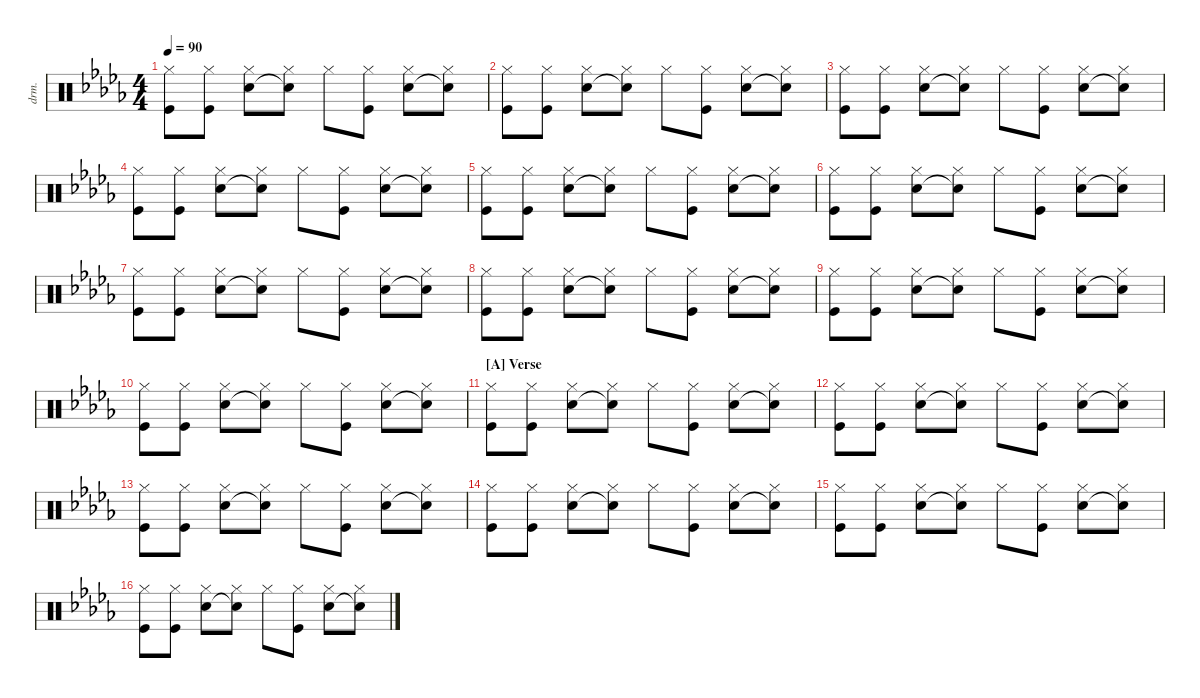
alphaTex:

\defaultSystemsLayout 4
\hideDynamics
\bracketExtendMode nobrackets
\otherSystemsTrackNameOrientation horizontal
\track ("Drumkit" "drm.") {instrument percussion}
\staff {score}
\articulation defaults
\ts (4 4)
\tempo 90
\clef neutral
\ks db
("Kick (hit)"{acc forcenatural} "Hi-Hat (closed)"{acc forcenatural}).8{dy pp beam Down} ("Kick (hit)"{acc forcenatural} "Hi-Hat (closed)"{acc forcenatural}).8{beam Down} ("Snare (hit) 2"{acc forcenatural} "Hi-Hat (closed)"{acc forcenatural}).8{beam Down} ("Snare (hit) 2"{t acc forcenatural} "Hi-Hat (closed)"{acc forcenatural}).8{beam Down} "Hi-Hat (closed)"{acc forcenatural}.8{beam Down} ("Kick (hit)"{acc forcenatural} "Hi-Hat (closed)"{acc forcenatural}).8{beam Down} ("Snare (hit) 2"{acc forcenatural} "Hi-Hat (closed)"{acc forcenatural}).8{beam Down} ("Snare (hit) 2"{t acc forcenatural} "Hi-Hat (closed)"{acc forcenatural}).8{beam Down} |
("Kick (hit)"{acc forcenatural} "Hi-Hat (closed)"{acc forcenatural}).8{beam Down} ("Kick (hit)"{acc forcenatural} "Hi-Hat (closed)"{acc forcenatural}).8{beam Down} ("Snare (hit) 2"{acc forcenatural} "Hi-Hat (closed)"{acc forcenatural}).8{beam Down} ("Snare (hit) 2"{t acc forcenatural} "Hi-Hat (closed)"{acc forcenatural}).8{beam Down} "Hi-Hat (closed)"{acc forcenatural}.8{beam Down} ("Kick (hit)"{acc forcenatural} "Hi-Hat (closed)"{acc forcenatural}).8{beam Down} ("Snare (hit) 2"{acc forcenatural} "Hi-Hat (closed)"{acc forcenatural}).8{beam Down} ("Snare (hit) 2"{t acc forcenatural} "Hi-Hat (closed)"{acc forcenatural}).8{beam Down} |
("Kick (hit)"{acc forcenatural} "Hi-Hat (closed)"{acc forcenatural}).8{beam Down} ("Kick (hit)"{acc forcenatural} "Hi-Hat (closed)"{acc forcenatural}).8{beam Down} ("Snare (hit) 2"{acc forcenatural} "Hi-Hat (closed)"{acc forcenatural}).8{beam Down} ("Snare (hit) 2"{t acc forcenatural} "Hi-Hat (closed)"{acc forcenatural}).8{beam Down} "Hi-Hat (closed)"{acc forcenatural}.8{beam Down} ("Kick (hit)"{acc forcenatural} "Hi-Hat (closed)"{acc forcenatural}).8{beam Down} ("Snare (hit) 2"{acc forcenatural} "Hi-Hat (closed)"{acc forcenatural}).8{beam Down} ("Snare (hit) 2"{t acc forcenatural} "Hi-Hat (closed)"{acc forcenatural}).8{beam Down} |
("Kick (hit)"{acc forcenatural} "Hi-Hat (closed)"{acc forcenatural}).8{beam Down} ("Kick (hit)"{acc forcenatural} "Hi-Hat (closed)"{acc forcenatural}).8{beam Down} ("Snare (hit) 2"{acc forcenatural} "Hi-Hat (closed)"{acc forcenatural}).8{beam Down} ("Snare (hit) 2"{t acc forcenatural} "Hi-Hat (closed)"{acc forcenatural}).8{beam Down} "Hi-Hat (closed)"{acc forcenatural}.8{beam Down} ("Kick (hit)"{acc forcenatural} "Hi-Hat (closed)"{acc forcenatural}).8{beam Down} ("Snare (hit) 2"{acc forcenatural} "Hi-Hat (closed)"{acc forcenatural}).8{beam Down} ("Snare (hit) 2"{t acc forcenatural} "Hi-Hat (closed)"{acc forcenatural}).8{beam Down} |
("Kick (hit)"{acc forcenatural} "Hi-Hat (closed)"{acc forcenatural}).8{beam Down} ("Kick (hit)"{acc forcenatural} "Hi-Hat (closed)"{acc forcenatural}).8{beam Down} ("Snare (hit) 2"{acc forcenatural} "Hi-Hat (closed)"{acc forcenatural}).8{beam Down} ("Snare (hit) 2"{t acc forcenatural} "Hi-Hat (closed)"{acc forcenatural}).8{beam Down} "Hi-Hat (closed)"{acc forcenatural}.8{beam Down} ("Kick (hit)"{acc forcenatural} "Hi-Hat (closed)"{acc forcenatural}).8{beam Down} ("Snare (hit) 2"{acc forcenatural} "Hi-Hat (closed)"{acc forcenatural}).8{beam Down} ("Snare (hit) 2"{t acc forcenatural} "Hi-Hat (closed)"{acc forcenatural}).8{beam Down} |
("Kick (hit)"{acc forcenatural} "Hi-Hat (closed)"{acc forcenatural}).8{beam Down} ("Kick (hit)"{acc forcenatural} "Hi-Hat (closed)"{acc forcenatural}).8{beam Down} ("Snare (hit) 2"{acc forcenatural} "Hi-Hat (closed)"{acc forcenatural}).8{beam Down} ("Snare (hit) 2"{t acc forcenatural} "Hi-Hat (closed)"{acc forcenatural}).8{beam Down} "Hi-Hat (closed)"{acc forcenatural}.8{beam Down} ("Kick (hit)"{acc forcenatural} "Hi-Hat (closed)"{acc forcenatural}).8{beam Down} ("Snare (hit) 2"{acc forcenatural} "Hi-Hat (closed)"{acc forcenatural}).8{beam Down} ("Snare (hit) 2"{t acc forcenatural} "Hi-Hat (closed)"{acc forcenatural}).8{beam Down} |
("Kick (hit)"{acc forcenatural} "Hi-Hat (closed)"{acc forcenatural}).8{beam Down} ("Kick (hit)"{acc forcenatural} "Hi-Hat (closed)"{acc forcenatural}).8{beam Down} ("Snare (hit) 2"{acc forcenatural} "Hi-Hat (closed)"{acc forcenatural}).8{beam Down} ("Snare (hit) 2"{t acc forcenatural} "Hi-Hat (closed)"{acc forcenatural}).8{beam Down} "Hi-Hat (closed)"{acc forcenatural}.8{beam Down} ("Kick (hit)"{acc forcenatural} "Hi-Hat (closed)"{acc forcenatural}).8{beam Down} ("Snare (hit) 2"{acc forcenatural} "Hi-Hat (closed)"{acc forcenatural}).8{beam Down} ("Snare (hit) 2"{t acc forcenatural} "Hi-Hat (closed)"{acc forcenatural}).8{beam Down} |
("Kick (hit)"{acc forcenatural} "Hi-Hat (closed)"{acc forcenatural}).8{beam Down} ("Kick (hit)"{acc forcenatural} "Hi-Hat (closed)"{acc forcenatural}).8{beam Down} ("Snare (hit) 2"{acc forcenatural} "Hi-Hat (closed)"{acc forcenatural}).8{beam Down} ("Snare (hit) 2"{t acc forcenatural} "Hi-Hat (closed)"{acc forcenatural}).8{beam Down} "Hi-Hat (closed)"{acc forcenatural}.8{beam Down} ("Kick (hit)"{acc forcenatural} "Hi-Hat (closed)"{acc forcenatural}).8{beam Down} ("Snare (hit) 2"{acc forcenatural} "Hi-Hat (closed)"{acc forcenatural}).8{beam Down} ("Snare (hit) 2"{t acc forcenatural} "Hi-Hat (closed)"{acc forcenatural}).8{beam Down} |
("Kick (hit)"{acc forcenatural} "Hi-Hat (closed)"{acc forcenatural}).8{beam Down} ("Kick (hit)"{acc forcenatural} "Hi-Hat (closed)"{acc forcenatural}).8{beam Down} ("Snare (hit) 2"{acc forcenatural} "Hi-Hat (closed)"{acc forcenatural}).8{beam Down} ("Snare (hit) 2"{t acc forcenatural} "Hi-Hat (closed)"{acc forcenatural}).8{beam Down} "Hi-Hat (closed)"{acc forcenatural}.8{beam Down} ("Kick (hit)"{acc forcenatural} "Hi-Hat (closed)"{acc forcenatural}).8{beam Down} ("Snare (hit) 2"{acc forcenatural} "Hi-Hat (closed)"{acc forcenatural}).8{beam Down} ("Snare (hit) 2"{t acc forcenatural} "Hi-Hat (closed)"{acc forcenatural}).8{beam Down} |
("Kick (hit)"{acc forcenatural} "Hi-Hat (closed)"{acc forcenatural}).8{beam Down} ("Kick (hit)"{acc forcenatural} "Hi-Hat (closed)"{acc forcenatural}).8{beam Down} ("Snare (hit) 2"{acc forcenatural} "Hi-Hat (closed)"{acc forcenatural}).8{beam Down} ("Snare (hit) 2"{t acc forcenatural} "Hi-Hat (closed)"{acc forcenatural}).8{beam Down} "Hi-Hat (closed)"{acc forcenatural}.8{beam Down} ("Kick (hit)"{acc forcenatural} "Hi-Hat (closed)"{acc forcenatural}).8{beam Down} ("Snare (hit) 2"{acc forcenatural} "Hi-Hat (closed)"{acc forcenatural}).8{beam Down} ("Snare (hit) 2"{t acc forcenatural} "Hi-Hat (closed)"{acc forcenatural}).8{beam Down} |
\section ("A" "Verse")
("Kick (hit)"{acc forcenatural} "Hi-Hat (closed)"{acc forcenatural}).8{beam Down} ("Kick (hit)"{acc forcenatural} "Hi-Hat (closed)"{acc forcenatural}).8{beam Down} ("Snare (hit) 2"{acc forcenatural} "Hi-Hat (closed)"{acc forcenatural}).8{beam Down} ("Snare (hit) 2"{t acc forcenatural} "Hi-Hat (closed)"{acc forcenatural}).8{beam Down} "Hi-Hat (closed)"{acc forcenatural}.8{beam Down} ("Kick (hit)"{acc forcenatural} "Hi-Hat (closed)"{acc forcenatural}).8{beam Down} ("Snare (hit) 2"{acc forcenatural} "Hi-Hat (closed)"{acc forcenatural}).8{beam Down} ("Snare (hit) 2"{t acc forcenatural} "Hi-Hat (closed)"{acc forcenatural}).8{beam Down} |
("Kick (hit)"{acc forcenatural} "Hi-Hat (closed)"{acc forcenatural}).8{beam Down} ("Kick (hit)"{acc forcenatural} "Hi-Hat (closed)"{acc forcenatural}).8{beam Down} ("Snare (hit) 2"{acc forcenatural} "Hi-Hat (closed)"{acc forcenatural}).8{beam Down} ("Snare (hit) 2"{t acc forcenatural} "Hi-Hat (closed)"{acc forcenatural}).8{beam Down} "Hi-Hat (closed)"{acc forcenatural}.8{beam Down} ("Kick (hit)"{acc forcenatural} "Hi-Hat (closed)"{acc forcenatural}).8{beam Down} ("Snare (hit) 2"{acc forcenatural} "Hi-Hat (closed)"{acc forcenatural}).8{beam Down} ("Snare (hit) 2"{t acc forcenatural} "Hi-Hat (closed)"{acc forcenatural}).8{beam Down} |
("Kick (hit)"{acc forcenatural} "Hi-Hat (closed)"{acc forcenatural}).8{beam Down} ("Kick (hit)"{acc forcenatural} "Hi-Hat (closed)"{acc forcenatural}).8{beam Down} ("Snare (hit) 2"{acc forcenatural} "Hi-Hat (closed)"{acc forcenatural}).8{beam Down} ("Snare (hit) 2"{t acc forcenatural} "Hi-Hat (closed)"{acc forcenatural}).8{beam Down} "Hi-Hat (closed)"{acc forcenatural}.8{beam Down} ("Kick (hit)"{acc forcenatural} "Hi-Hat (closed)"{acc forcenatural}).8{beam Down} ("Snare (hit) 2"{acc forcenatural} "Hi-Hat (closed)"{acc forcenatural}).8{beam Down} ("Snare (hit) 2"{t acc forcenatural} "Hi-Hat (closed)"{acc forcenatural}).8{beam Down} |
("Kick (hit)"{acc forcenatural} "Hi-Hat (closed)"{acc forcenatural}).8{beam Down} ("Kick (hit)"{acc forcenatural} "Hi-Hat (closed)"{acc forcenatural}).8{beam Down} ("Snare (hit) 2"{acc forcenatural} "Hi-Hat (closed)"{acc forcenatural}).8{beam Down} ("Snare (hit) 2"{t acc forcenatural} "Hi-Hat (closed)"{acc forcenatural}).8{beam Down} "Hi-Hat (closed)"{acc forcenatural}.8{beam Down} ("Kick (hit)"{acc forcenatural} "Hi-Hat (closed)"{acc forcenatural}).8{beam Down} ("Snare (hit) 2"{acc forcenatural} "Hi-Hat (closed)"{acc forcenatural}).8{beam Down} ("Snare (hit) 2"{t acc forcenatural} "Hi-Hat (closed)"{acc forcenatural}).8{beam Down} |
("Kick (hit)"{acc forcenatural} "Hi-Hat (closed)"{acc forcenatural}).8{beam Down} ("Kick (hit)"{acc forcenatural} "Hi-Hat (closed)"{acc forcenatural}).8{beam Down} ("Snare (hit) 2"{acc forcenatural} "Hi-Hat (closed)"{acc forcenatural}).8{beam Down} ("Snare (hit) 2"{t acc forcenatural} "Hi-Hat (closed)"{acc forcenatural}).8{beam Down} "Hi-Hat (closed)"{acc forcenatural}.8{beam Down} ("Kick (hit)"{acc forcenatural} "Hi-Hat (closed)"{acc forcenatural}).8{beam Down} ("Snare (hit) 2"{acc forcenatural} "Hi-Hat (closed)"{acc forcenatural}).8{beam Down} ("Snare (hit) 2"{t acc forcenatural} "Hi-Hat (closed)"{acc forcenatural}).8{beam Down} |
("Kick (hit)"{acc forcenatural} "Hi-Hat (closed)"{acc forcenatural}).8{beam Down} ("Kick (hit)"{acc forcenatural} "Hi-Hat (closed)"{acc forcenatural}).8{beam Down} ("Snare (hit) 2"{acc forcenatural} "Hi-Hat (closed)"{acc forcenatural}).8{beam Down} ("Snare (hit) 2"{t acc forcenatural} "Hi-Hat (closed)"{acc forcenatural}).8{beam Down} "Hi-Hat (closed)"{acc forcenatural}.8{beam Down} ("Kick (hit)"{acc forcenatural} "Hi-Hat (closed)"{acc forcenatural}).8{beam Down} ("Snare (hit) 2"{acc forcenatural} "Hi-Hat (closed)"{acc forcenatural}).8{beam Down} ("Snare (hit) 2"{t acc forcenatural} "Hi-Hat (closed)"{acc forcenatural}).8{beam Down}
